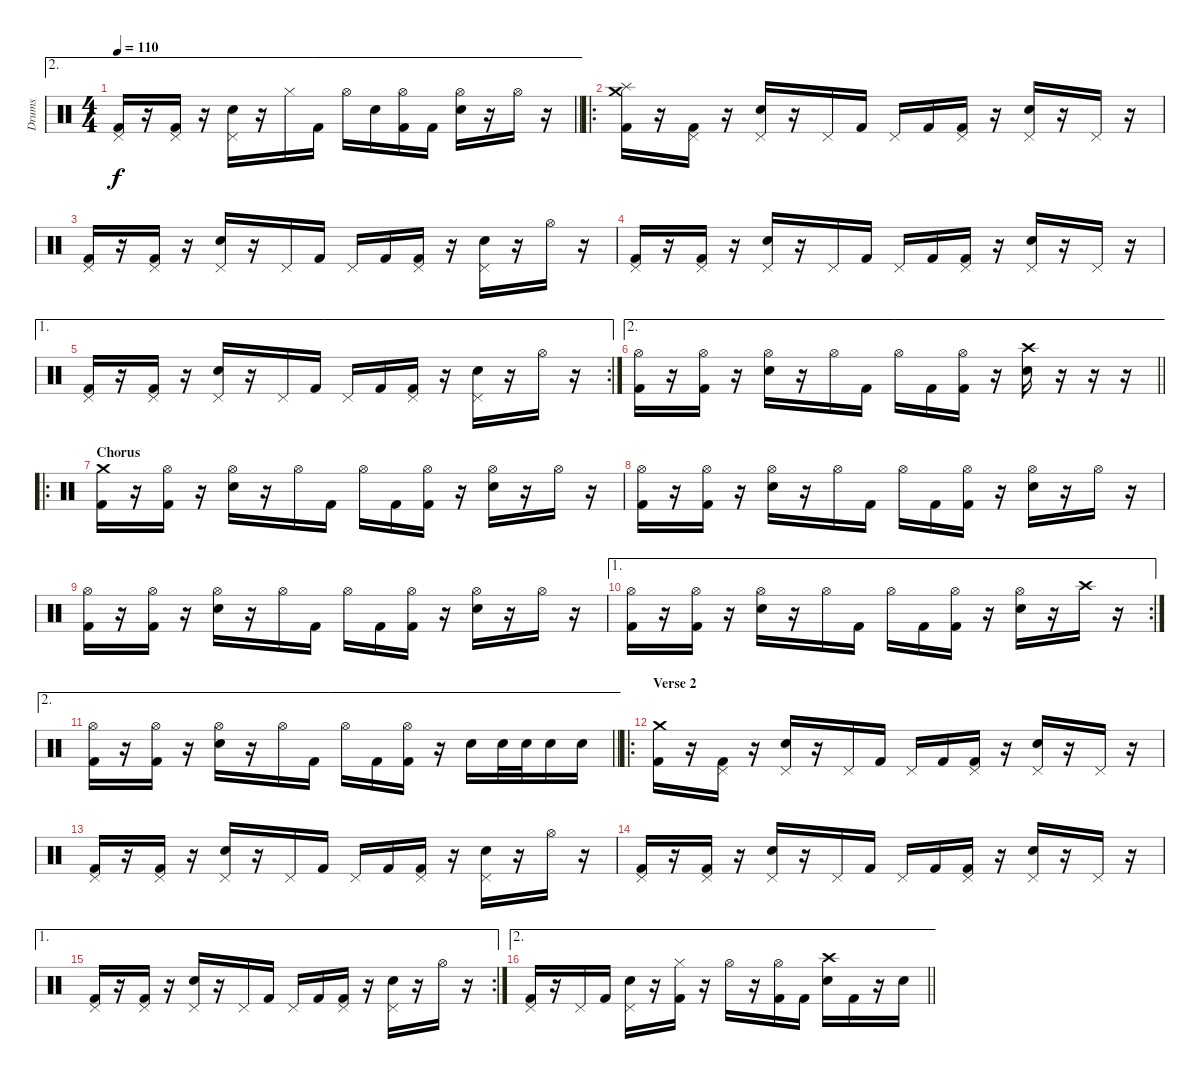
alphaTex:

\track ("Drums" "Drums") {instrument percussion}
\staff {score}
\articulation defaults
\ae 2
\ts (4 4)
\tempo 110
\clef neutral
\barLineRight lightlight
\ks c
("Pedal Hi-Hat (hit)" "Kick (hit) 2").16{dy f} r.16 ("Pedal Hi-Hat (hit)" "Kick (hit) 2").16 r.16 ("Pedal Hi-Hat (hit)" "Electric Snare (hit)").16 r.16 "Hi-Hat (closed)".16 "Kick (hit) 2".16 "Hi-Hat (open)".16 "Electric Snare (hit)".16 ("Hi-Hat (open)" "Kick (hit) 2").16 "Kick (hit) 2".16 ("Hi-Hat (open)" "Electric Snare (hit)").16 r.16 "Hi-Hat (open)".16 r.16 |
\ro
("Crash medium (hit)" "Splash (hit)" "Kick (hit) 2").16 r.16 ("Pedal Hi-Hat (hit)" "Kick (hit) 2").16 r.16 ("Pedal Hi-Hat (hit)" "Electric Snare (hit)").16 r.16 "Pedal Hi-Hat (hit)".16 "Kick (hit) 2".16 "Pedal Hi-Hat (hit)".16 "Kick (hit) 2".16 ("Pedal Hi-Hat (hit)" "Kick (hit) 2").16 r.16 ("Pedal Hi-Hat (hit)" "Electric Snare (hit)").16 r.16 "Pedal Hi-Hat (hit)".16 r.16 |
("Pedal Hi-Hat (hit)" "Kick (hit) 2").16 r.16 ("Pedal Hi-Hat (hit)" "Kick (hit) 2").16 r.16 ("Pedal Hi-Hat (hit)" "Electric Snare (hit)").16 r.16 "Pedal Hi-Hat (hit)".16 "Kick (hit) 2".16 "Pedal Hi-Hat (hit)".16 "Kick (hit) 2".16 ("Pedal Hi-Hat (hit)" "Kick (hit) 2").16 r.16 ("Pedal Hi-Hat (hit)" "Electric Snare (hit)").16 r.16 "Hi-Hat (open)".16 r.16 |
("Pedal Hi-Hat (hit)" "Kick (hit) 2").16 r.16 ("Pedal Hi-Hat (hit)" "Kick (hit) 2").16 r.16 ("Pedal Hi-Hat (hit)" "Electric Snare (hit)").16 r.16 "Pedal Hi-Hat (hit)".16 "Kick (hit) 2".16 "Pedal Hi-Hat (hit)".16 "Kick (hit) 2".16 ("Pedal Hi-Hat (hit)" "Kick (hit) 2").16 r.16 ("Pedal Hi-Hat (hit)" "Electric Snare (hit)").16 r.16 "Pedal Hi-Hat (hit)".16 r.16 |
\ae 1
\rc 2
("Pedal Hi-Hat (hit)" "Kick (hit) 2").16 r.16 ("Pedal Hi-Hat (hit)" "Kick (hit) 2").16 r.16 ("Pedal Hi-Hat (hit)" "Electric Snare (hit)").16 r.16 "Pedal Hi-Hat (hit)".16 "Kick (hit) 2".16 "Pedal Hi-Hat (hit)".16 "Kick (hit) 2".16 ("Pedal Hi-Hat (hit)" "Kick (hit) 2").16 r.16 ("Pedal Hi-Hat (hit)" "Electric Snare (hit)").16 r.16 "Hi-Hat (open)".16 r.16 |
\ae 2
\barLineRight lightlight
("Hi-Hat (open)" "Kick (hit) 2").16 r.16 ("Hi-Hat (open)" "Kick (hit) 2").16 r.16 ("Hi-Hat (open)" "Electric Snare (hit)").16 r.16 "Hi-Hat (open)".16 "Kick (hit) 2".16 "Hi-Hat (open)".16 "Kick (hit) 2".16 ("Hi-Hat (open)" "Kick (hit) 2").16 r.16 ("Crash high (hit)" "Electric Snare (hit)").16 r.16 r.16 r.16 |
\ro
\section ("" "Chorus")
("Crash medium (hit)" "Kick (hit) 2").16 r.16 ("Hi-Hat (open)" "Kick (hit) 2").16 r.16 ("Hi-Hat (open)" "Electric Snare (hit)").16 r.16 "Hi-Hat (open)".16 "Kick (hit) 2".16 "Hi-Hat (open)".16 "Kick (hit) 2".16 ("Hi-Hat (open)" "Kick (hit) 2").16 r.16 ("Hi-Hat (open)" "Electric Snare (hit)").16 r.16 "Hi-Hat (open)".16 r.16 |
("Hi-Hat (open)" "Kick (hit) 2").16 r.16 ("Hi-Hat (open)" "Kick (hit) 2").16 r.16 ("Hi-Hat (open)" "Electric Snare (hit)").16 r.16 "Hi-Hat (open)".16 "Kick (hit) 2".16 "Hi-Hat (open)".16 "Kick (hit) 2".16 ("Hi-Hat (open)" "Kick (hit) 2").16 r.16 ("Hi-Hat (open)" "Electric Snare (hit)").16 r.16 "Hi-Hat (open)".16 r.16 |
("Hi-Hat (open)" "Kick (hit) 2").16 r.16 ("Hi-Hat (open)" "Kick (hit) 2").16 r.16 ("Hi-Hat (open)" "Electric Snare (hit)").16 r.16 "Hi-Hat (open)".16 "Kick (hit) 2".16 "Hi-Hat (open)".16 "Kick (hit) 2".16 ("Hi-Hat (open)" "Kick (hit) 2").16 r.16 ("Hi-Hat (open)" "Electric Snare (hit)").16 r.16 "Hi-Hat (open)".16 r.16 |
\ae 1
\rc 2
("Hi-Hat (open)" "Kick (hit) 2").16 r.16 ("Hi-Hat (open)" "Kick (hit) 2").16 r.16 ("Hi-Hat (open)" "Electric Snare (hit)").16 r.16 "Hi-Hat (open)".16 "Kick (hit) 2".16 "Hi-Hat (open)".16 "Kick (hit) 2".16 ("Hi-Hat (open)" "Kick (hit) 2").16 r.16 ("Hi-Hat (open)" "Electric Snare (hit)").16 r.16 "Crash high (hit)".16 r.16 |
\ae 2
\barLineRight lightlight
("Hi-Hat (open)" "Kick (hit) 2").16 r.16 ("Hi-Hat (open)" "Kick (hit) 2").16 r.16 ("Hi-Hat (open)" "Electric Snare (hit)").16 r.16 "Hi-Hat (open)".16 "Kick (hit) 2".16 "Hi-Hat (open)".16 "Kick (hit) 2".16 ("Hi-Hat (open)" "Kick (hit) 2").16 r.16 "Electric Snare (hit)".16 "Electric Snare (hit)".32 "Electric Snare (hit)".32 "Electric Snare (hit)".16 "Electric Snare (hit)".16 |
\ro
\section ("" "Verse 2")
("Crash medium (hit)" "Kick (hit) 2").16 r.16 ("Pedal Hi-Hat (hit)" "Kick (hit) 2").16 r.16 ("Pedal Hi-Hat (hit)" "Electric Snare (hit)").16 r.16 "Pedal Hi-Hat (hit)".16 "Kick (hit) 2".16 "Pedal Hi-Hat (hit)".16 "Kick (hit) 2".16 ("Pedal Hi-Hat (hit)" "Kick (hit) 2").16 r.16 ("Pedal Hi-Hat (hit)" "Electric Snare (hit)").16 r.16 "Pedal Hi-Hat (hit)".16 r.16 |
("Pedal Hi-Hat (hit)" "Kick (hit) 2").16 r.16 ("Pedal Hi-Hat (hit)" "Kick (hit) 2").16 r.16 ("Pedal Hi-Hat (hit)" "Electric Snare (hit)").16 r.16 "Pedal Hi-Hat (hit)".16 "Kick (hit) 2".16 "Pedal Hi-Hat (hit)".16 "Kick (hit) 2".16 ("Pedal Hi-Hat (hit)" "Kick (hit) 2").16 r.16 ("Pedal Hi-Hat (hit)" "Electric Snare (hit)").16 r.16 "Hi-Hat (open)".16 r.16 |
("Pedal Hi-Hat (hit)" "Kick (hit) 2").16 r.16 ("Pedal Hi-Hat (hit)" "Kick (hit) 2").16 r.16 ("Pedal Hi-Hat (hit)" "Electric Snare (hit)").16 r.16 "Pedal Hi-Hat (hit)".16 "Kick (hit) 2".16 "Pedal Hi-Hat (hit)".16 "Kick (hit) 2".16 ("Pedal Hi-Hat (hit)" "Kick (hit) 2").16 r.16 ("Pedal Hi-Hat (hit)" "Electric Snare (hit)").16 r.16 "Pedal Hi-Hat (hit)".16 r.16 |
\ae 1
\rc 2
("Pedal Hi-Hat (hit)" "Kick (hit) 2").16 r.16 ("Pedal Hi-Hat (hit)" "Kick (hit) 2").16 r.16 ("Pedal Hi-Hat (hit)" "Electric Snare (hit)").16 r.16 "Pedal Hi-Hat (hit)".16 "Kick (hit) 2".16 "Pedal Hi-Hat (hit)".16 "Kick (hit) 2".16 ("Pedal Hi-Hat (hit)" "Kick (hit) 2").16 r.16 ("Pedal Hi-Hat (hit)" "Electric Snare (hit)").16 r.16 "Hi-Hat (open)".16 r.16 |
\ae 2
\barLineRight lightlight
("Pedal Hi-Hat (hit)" "Kick (hit) 2").16 r.16 "Pedal Hi-Hat (hit)".16 "Kick (hit) 2".16 ("Pedal Hi-Hat (hit)" "Electric Snare (hit)").16 r.16 ("Hi-Hat (closed)" "Kick (hit) 2").16 r.16 "Hi-Hat (open)".16 r.16 ("Hi-Hat (open)" "Kick (hit) 2").16 "Kick (hit) 2".16 ("Crash high (hit)" "Electric Snare (hit)").16 "Kick (hit) 2".16 r.16 "Electric Snare (hit)".16
